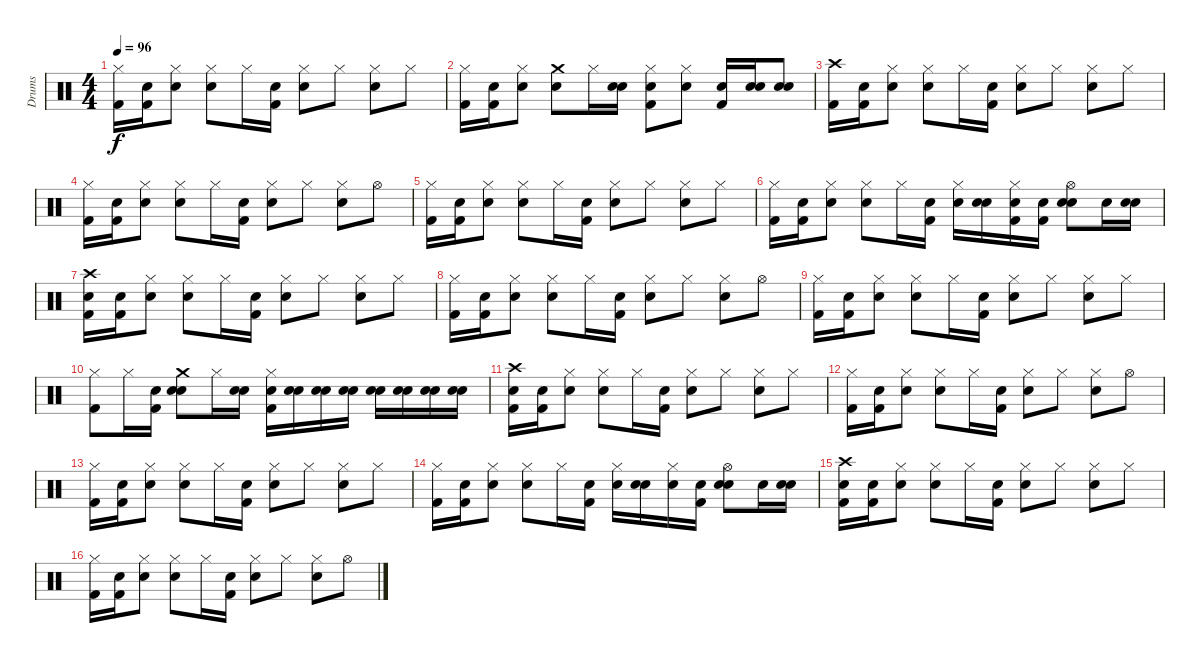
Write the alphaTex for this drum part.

\track ("Drums" "Drums") {instrument percussion}
\staff {score}
\articulation defaults
\ts (4 4)
\tempo 96
\clef neutral
\ks c
("Hi-Hat (closed)" "Kick (hit) 2").16{dy f} ("Snare (hit)" "Kick (hit) 2").16 ("Snare (hit)" "Hi-Hat (closed)").8 ("Snare (hit) 2" "Hi-Hat (closed)").8 "Hi-Hat (closed)".16 ("Snare (hit)" "Kick (hit) 2").16 ("Snare (hit)" "Hi-Hat (closed)").8 "Hi-Hat (closed)".8 ("Snare (hit) 2" "Hi-Hat (closed)").8 "Hi-Hat (closed)".8 |
("Hi-Hat (closed)" "Kick (hit) 2").16 ("Snare (hit)" "Kick (hit) 2").16 ("Snare (hit)" "Hi-Hat (closed)").8 ("Crash medium (hit)" "Snare (hit) 2").8 "Hi-Hat (closed)".16 ("Snare (hit)" "Snare (hit) 2").16 ("Snare (hit)" "Kick (hit) 2" "Hi-Hat (closed)").8 ("Snare (hit) 2" "Hi-Hat (closed)").8 ("Kick (hit) 2" "Snare (hit) 2").16 ("Snare (hit)" "Snare (hit) 2").16 ("Snare (hit)" "Snare (hit) 2").8 |
("Crash high (hit)" "Kick (hit) 2").16 ("Snare (hit)" "Kick (hit) 2").16 ("Snare (hit)" "Hi-Hat (closed)").8 ("Snare (hit) 2" "Hi-Hat (closed)").8 "Hi-Hat (closed)".16 ("Snare (hit)" "Kick (hit) 2").16 ("Snare (hit)" "Hi-Hat (closed)").8 "Hi-Hat (closed)".8 ("Snare (hit) 2" "Hi-Hat (closed)").8 "Hi-Hat (closed)".8 |
("Hi-Hat (closed)" "Kick (hit) 2").16 ("Snare (hit)" "Kick (hit) 2").16 ("Snare (hit)" "Hi-Hat (closed)").8 ("Snare (hit) 2" "Hi-Hat (closed)").8 "Hi-Hat (closed)".16 ("Snare (hit)" "Kick (hit) 2").16 ("Snare (hit)" "Hi-Hat (closed)").8 "Hi-Hat (closed)".8 ("Snare (hit) 2" "Hi-Hat (closed)").8 "Hi-Hat (open)".8 |
("Hi-Hat (closed)" "Kick (hit) 2").16 ("Snare (hit)" "Kick (hit) 2").16 ("Snare (hit)" "Hi-Hat (closed)").8 ("Snare (hit) 2" "Hi-Hat (closed)").8 "Hi-Hat (closed)".16 ("Snare (hit)" "Kick (hit) 2").16 ("Snare (hit)" "Hi-Hat (closed)").8 "Hi-Hat (closed)".8 ("Snare (hit) 2" "Hi-Hat (closed)").8 "Hi-Hat (closed)".8 |
("Hi-Hat (closed)" "Kick (hit) 2").16 ("Snare (hit)" "Kick (hit) 2").16 ("Snare (hit)" "Hi-Hat (closed)").8 ("Snare (hit) 2" "Hi-Hat (closed)").8 "Hi-Hat (closed)".16 ("Snare (hit)" "Kick (hit) 2").16 ("Snare (hit)" "Hi-Hat (closed)").16 ("Snare (hit)" "Snare (hit) 2").16 ("Snare (hit)" "Hi-Hat (closed)" "Kick (hit) 2").16 ("Snare (hit)" "Kick (hit) 2").16 ("Snare (hit)" "Snare (hit) 2" "Hi-Hat (open)").8 "Snare (hit) 2".16 ("Snare (hit)" "Snare (hit) 2").16 |
("Snare (hit)" "Crash high (hit)" "Kick (hit) 2").16 ("Snare (hit)" "Kick (hit) 2").16 ("Snare (hit)" "Hi-Hat (closed)").8 ("Snare (hit) 2" "Hi-Hat (closed)").8 "Hi-Hat (closed)".16 ("Snare (hit)" "Kick (hit) 2").16 ("Snare (hit)" "Hi-Hat (closed)").8 "Hi-Hat (closed)".8 ("Snare (hit) 2" "Hi-Hat (closed)").8 "Hi-Hat (closed)".8 |
("Hi-Hat (closed)" "Kick (hit) 2").16 ("Snare (hit)" "Kick (hit) 2").16 ("Snare (hit)" "Hi-Hat (closed)").8 ("Snare (hit) 2" "Hi-Hat (closed)").8 "Hi-Hat (closed)".16 ("Snare (hit)" "Kick (hit) 2").16 ("Snare (hit)" "Hi-Hat (closed)").8 "Hi-Hat (closed)".8 ("Snare (hit) 2" "Hi-Hat (closed)").8 "Hi-Hat (open)".8 |
("Hi-Hat (closed)" "Kick (hit) 2").16 ("Snare (hit)" "Kick (hit) 2").16 ("Snare (hit)" "Hi-Hat (closed)").8 ("Snare (hit) 2" "Hi-Hat (closed)").8 "Hi-Hat (closed)".16 ("Snare (hit)" "Kick (hit) 2").16 ("Snare (hit)" "Hi-Hat (closed)").8 "Hi-Hat (closed)".8 ("Snare (hit) 2" "Hi-Hat (closed)").8 "Hi-Hat (closed)".8 |
("Kick (hit) 2" "Hi-Hat (closed)").8 "Hi-Hat (closed)".16 ("Snare (hit)" "Kick (hit) 2").16 ("Snare (hit)" "Snare (hit) 2" "Crash medium (hit)").8 "Hi-Hat (closed)".16 ("Snare (hit)" "Snare (hit) 2").16 ("Snare (hit)" "Kick (hit) 2" "Hi-Hat (closed)").16 ("Snare (hit)" "Snare (hit) 2").16 ("Snare (hit)" "Snare (hit) 2").16 ("Snare (hit)" "Snare (hit) 2").16 ("Snare (hit)" "Snare (hit) 2").16 ("Snare (hit)" "Snare (hit) 2").16 ("Snare (hit)" "Snare (hit) 2").16 ("Snare (hit)" "Snare (hit) 2").16 |
("Snare (hit)" "Crash high (hit)" "Kick (hit) 2").16 ("Snare (hit)" "Kick (hit) 2").16 ("Snare (hit)" "Hi-Hat (closed)").8 ("Snare (hit) 2" "Hi-Hat (closed)").8 "Hi-Hat (closed)".16 ("Snare (hit)" "Kick (hit) 2").16 ("Snare (hit)" "Hi-Hat (closed)").8 "Hi-Hat (closed)".8 ("Snare (hit) 2" "Hi-Hat (closed)").8 "Hi-Hat (closed)".8 |
("Hi-Hat (closed)" "Kick (hit) 2").16 ("Snare (hit)" "Kick (hit) 2").16 ("Snare (hit)" "Hi-Hat (closed)").8 ("Snare (hit) 2" "Hi-Hat (closed)").8 "Hi-Hat (closed)".16 ("Snare (hit)" "Kick (hit) 2").16 ("Snare (hit)" "Hi-Hat (closed)").8 "Hi-Hat (closed)".8 ("Snare (hit) 2" "Hi-Hat (closed)").8 "Hi-Hat (open)".8 |
("Hi-Hat (closed)" "Kick (hit) 2").16 ("Snare (hit)" "Kick (hit) 2").16 ("Snare (hit)" "Hi-Hat (closed)").8 ("Snare (hit) 2" "Hi-Hat (closed)").8 "Hi-Hat (closed)".16 ("Snare (hit)" "Kick (hit) 2").16 ("Snare (hit)" "Hi-Hat (closed)").8 "Hi-Hat (closed)".8 ("Snare (hit) 2" "Hi-Hat (closed)").8 "Hi-Hat (closed)".8 |
("Hi-Hat (closed)" "Kick (hit) 2").16 ("Snare (hit)" "Kick (hit) 2").16 ("Snare (hit)" "Hi-Hat (closed)").8 ("Snare (hit) 2" "Hi-Hat (closed)").8 "Hi-Hat (closed)".16 ("Snare (hit)" "Kick (hit) 2").16 ("Snare (hit)" "Hi-Hat (closed)").16 ("Snare (hit)" "Snare (hit) 2").16 ("Snare (hit)" "Hi-Hat (closed)").16 ("Snare (hit)" "Kick (hit) 2").16 ("Snare (hit)" "Snare (hit) 2" "Hi-Hat (open)").8 "Snare (hit) 2".16 ("Snare (hit)" "Snare (hit) 2").16 |
("Snare (hit)" "Crash high (hit)" "Kick (hit) 2").16 ("Snare (hit)" "Kick (hit) 2").16 ("Snare (hit)" "Hi-Hat (closed)").8 ("Snare (hit) 2" "Hi-Hat (closed)").8 "Hi-Hat (closed)".16 ("Snare (hit)" "Kick (hit) 2").16 ("Snare (hit)" "Hi-Hat (closed)").8 "Hi-Hat (closed)".8 ("Snare (hit) 2" "Hi-Hat (closed)").8 "Hi-Hat (closed)".8 |
("Hi-Hat (closed)" "Kick (hit) 2").16 ("Snare (hit)" "Kick (hit) 2").16 ("Snare (hit)" "Hi-Hat (closed)").8 ("Snare (hit) 2" "Hi-Hat (closed)").8 "Hi-Hat (closed)".16 ("Snare (hit)" "Kick (hit) 2").16 ("Snare (hit)" "Hi-Hat (closed)").8 "Hi-Hat (closed)".8 ("Snare (hit) 2" "Hi-Hat (closed)").8 "Hi-Hat (open)".8
